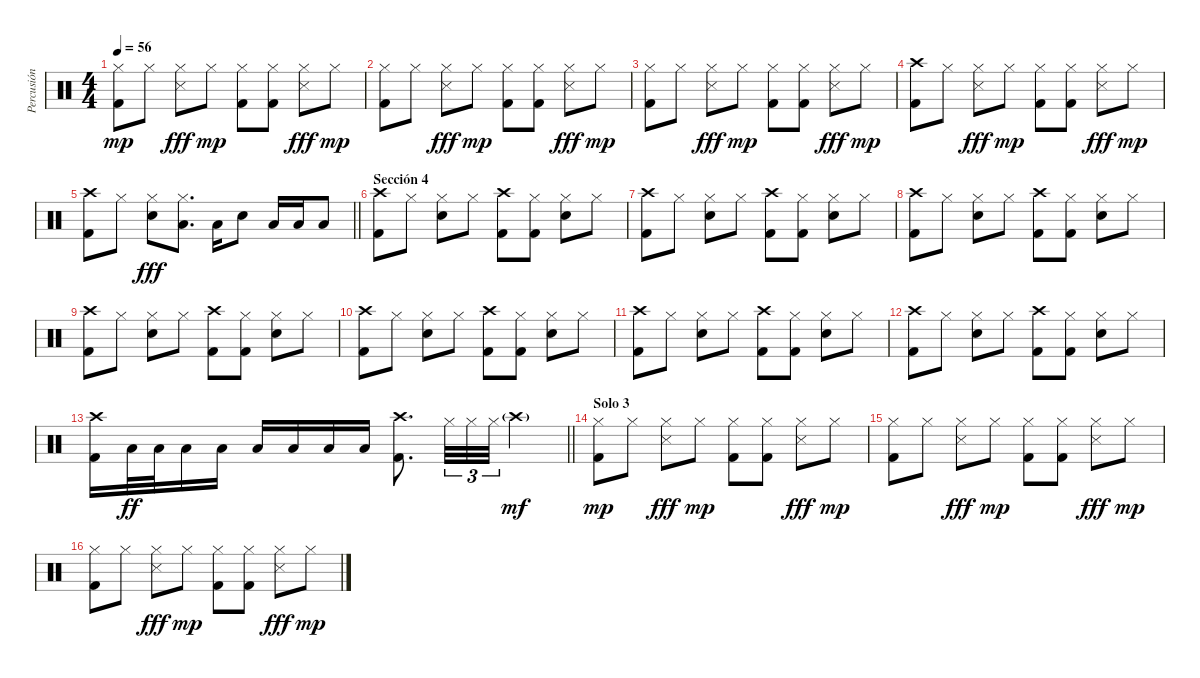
\track ("Percusión" "Percusión") {instrument percussion}
\staff {score}
\articulation defaults
\ts (4 4)
\tempo 56
\clef neutral
\ks c
("Hi-Hat (closed)" "Kick (hit) 2").8{dy mp} "Hi-Hat (closed)".8 ("Hi-Hat (closed)" "Metronome (hit)").8{dy fff} "Hi-Hat (closed)".8{dy mp} ("Hi-Hat (closed)" "Kick (hit) 2").8 ("Hi-Hat (closed)" "Kick (hit) 2").8 ("Hi-Hat (closed)" "Metronome (hit)").8{dy fff} "Hi-Hat (closed)".8{dy mp} |
("Hi-Hat (closed)" "Kick (hit) 2").8 "Hi-Hat (closed)".8 ("Hi-Hat (closed)" "Metronome (hit)").8{dy fff} "Hi-Hat (closed)".8{dy mp} ("Hi-Hat (closed)" "Kick (hit) 2").8 ("Hi-Hat (closed)" "Kick (hit) 2").8 ("Hi-Hat (closed)" "Metronome (hit)").8{dy fff} "Hi-Hat (closed)".8{dy mp} |
("Hi-Hat (closed)" "Kick (hit) 2").8 "Hi-Hat (closed)".8 ("Hi-Hat (closed)" "Metronome (hit)").8{dy fff} "Hi-Hat (closed)".8{dy mp} ("Hi-Hat (closed)" "Kick (hit) 2").8 ("Hi-Hat (closed)" "Kick (hit) 2").8 ("Hi-Hat (closed)" "Metronome (hit)").8{dy fff} "Hi-Hat (closed)".8{dy mp} |
("Crash high (hit)" "Kick (hit) 2").8 "Hi-Hat (closed)".8 ("Hi-Hat (closed)" "Metronome (hit)").8{dy fff} "Hi-Hat (closed)".8{dy mp} ("Hi-Hat (closed)" "Kick (hit) 2").8 ("Hi-Hat (closed)" "Kick (hit) 2").8 ("Hi-Hat (closed)" "Metronome (hit)").8{dy fff} "Hi-Hat (closed)".8{dy mp} |
\barLineRight lightlight
("Crash high (hit)" "Kick (hit) 2").8 "Hi-Hat (closed)".8 ("Hi-Hat (closed)" "Snare (hit) 2").8{dy fff} ("Hi-Hat (closed)" "Low Tom (hit)").8{d} "Low Tom (hit)".16 "Snare (hit) 2".8 "Low Tom (hit)".16 "Low Tom (hit)".16 "Low Tom (hit)".8 |
\section ("" "Sección 4")
("Crash high (hit)" "Kick (hit) 2").8 "Hi-Hat (closed)".8 ("Hi-Hat (closed)" "Snare (hit) 2").8 "Hi-Hat (closed)".8 ("Crash high (hit)" "Kick (hit) 2").8 ("Hi-Hat (closed)" "Kick (hit) 2").8 ("Hi-Hat (closed)" "Snare (hit) 2").8 "Hi-Hat (closed)".8 |
("Crash high (hit)" "Kick (hit) 2").8 "Hi-Hat (closed)".8 ("Hi-Hat (closed)" "Snare (hit) 2").8 "Hi-Hat (closed)".8 ("Crash high (hit)" "Kick (hit) 2").8 ("Hi-Hat (closed)" "Kick (hit) 2").8 ("Hi-Hat (closed)" "Snare (hit) 2").8 "Hi-Hat (closed)".8 |
("Crash high (hit)" "Kick (hit) 2").8 "Hi-Hat (closed)".8 ("Hi-Hat (closed)" "Snare (hit) 2").8 "Hi-Hat (closed)".8 ("Crash high (hit)" "Kick (hit) 2").8 ("Hi-Hat (closed)" "Kick (hit) 2").8 ("Hi-Hat (closed)" "Snare (hit) 2").8 "Hi-Hat (closed)".8 |
("Crash high (hit)" "Kick (hit) 2").8 "Hi-Hat (closed)".8 ("Hi-Hat (closed)" "Snare (hit) 2").8 "Hi-Hat (closed)".8 ("Crash high (hit)" "Kick (hit) 2").8 ("Hi-Hat (closed)" "Kick (hit) 2").8 ("Hi-Hat (closed)" "Snare (hit) 2").8 "Hi-Hat (closed)".8 |
("Crash high (hit)" "Kick (hit) 2").8 "Hi-Hat (closed)".8 ("Hi-Hat (closed)" "Snare (hit) 2").8 "Hi-Hat (closed)".8 ("Crash high (hit)" "Kick (hit) 2").8 ("Hi-Hat (closed)" "Kick (hit) 2").8 ("Hi-Hat (closed)" "Snare (hit) 2").8 "Hi-Hat (closed)".8 |
("Crash high (hit)" "Kick (hit) 2").8 "Hi-Hat (closed)".8 ("Hi-Hat (closed)" "Snare (hit) 2").8 "Hi-Hat (closed)".8 ("Crash high (hit)" "Kick (hit) 2").8 ("Hi-Hat (closed)" "Kick (hit) 2").8 ("Hi-Hat (closed)" "Snare (hit) 2").8 "Hi-Hat (closed)".8 |
("Crash high (hit)" "Kick (hit) 2").8 "Hi-Hat (closed)".8 ("Hi-Hat (closed)" "Snare (hit) 2").8 "Hi-Hat (closed)".8 ("Crash high (hit)" "Kick (hit) 2").8 ("Hi-Hat (closed)" "Kick (hit) 2").8 ("Hi-Hat (closed)" "Snare (hit) 2").8 "Hi-Hat (closed)".8 |
\barLineRight lightlight
("Crash high (hit)" "Kick (hit) 2").16 "Low Floor Tom (hit)".32{dy ff} "Low Floor Tom (hit)".32 "Low Floor Tom (hit)".16 "Low Floor Tom (hit)".16 "Low Floor Tom (hit)".16 "Low Floor Tom (hit)".16 "Low Floor Tom (hit)".16 "Low Floor Tom (hit)".16 ("Crash high (hit)" "Kick (hit) 2").8{d} "Hi-Hat (closed)".32{tu (3 2)} "Hi-Hat (closed)".32{tu (3 2)} "Hi-Hat (closed)".32{tu (3 2)} "Crash high (hit)"{g}.4{dy mf} |
\section ("" "Solo 3")
("Hi-Hat (closed)" "Kick (hit) 2").8{dy mp} "Hi-Hat (closed)".8 ("Hi-Hat (closed)" "Metronome (hit)").8{dy fff} "Hi-Hat (closed)".8{dy mp} ("Hi-Hat (closed)" "Kick (hit) 2").8 ("Hi-Hat (closed)" "Kick (hit) 2").8 ("Hi-Hat (closed)" "Metronome (hit)").8{dy fff} "Hi-Hat (closed)".8{dy mp} |
("Hi-Hat (closed)" "Kick (hit) 2").8 "Hi-Hat (closed)".8 ("Hi-Hat (closed)" "Metronome (hit)").8{dy fff} "Hi-Hat (closed)".8{dy mp} ("Hi-Hat (closed)" "Kick (hit) 2").8 ("Hi-Hat (closed)" "Kick (hit) 2").8 ("Hi-Hat (closed)" "Metronome (hit)").8{dy fff} "Hi-Hat (closed)".8{dy mp} |
("Hi-Hat (closed)" "Kick (hit) 2").8 "Hi-Hat (closed)".8 ("Hi-Hat (closed)" "Metronome (hit)").8{dy fff} "Hi-Hat (closed)".8{dy mp} ("Hi-Hat (closed)" "Kick (hit) 2").8 ("Hi-Hat (closed)" "Kick (hit) 2").8 ("Hi-Hat (closed)" "Metronome (hit)").8{dy fff} "Hi-Hat (closed)".8{dy mp}
